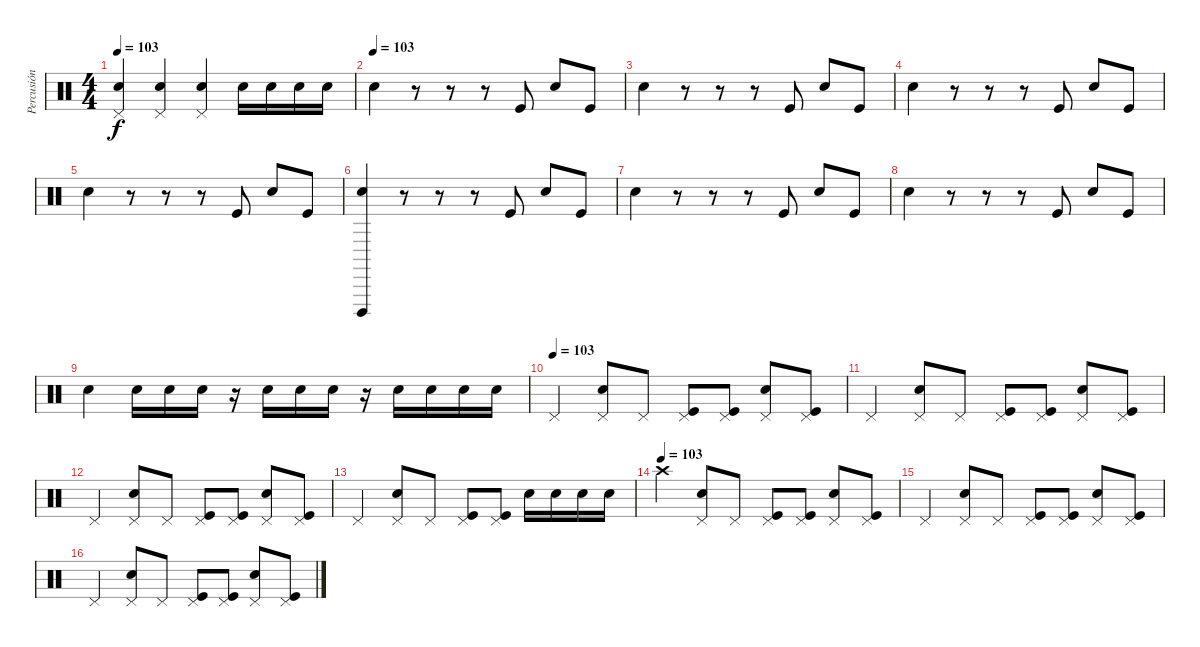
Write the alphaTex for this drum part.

\track ("Percusión" "Percusión") {instrument percussion}
\staff {score}
\articulation defaults
\ts (4 4)
\tempo 103
\clef neutral
\ks c
("Snare (hit) 2" "Pedal Hi-Hat (hit)").4{dy f} ("Snare (hit) 2" "Pedal Hi-Hat (hit)").4 ("Snare (hit) 2" "Pedal Hi-Hat (hit)").4 "Snare (hit) 2".16 "Snare (hit) 2".16 "Snare (hit) 2".16 "Snare (hit) 2".16 |
\tempo (103)
"Snare (hit) 2".4 r.8 r.8 r.8 "Kick (hit)".8 "Snare (hit) 2".8 "Kick (hit)".8 |
"Snare (hit) 2".4 r.8 r.8 r.8 "Kick (hit)".8 "Snare (hit) 2".8 "Kick (hit)".8 |
"Snare (hit) 2".4 r.8 r.8 r.8 "Kick (hit)".8 "Snare (hit) 2".8 "Kick (hit)".8 |
"Snare (hit) 2".4 r.8 r.8 r.8 "Kick (hit)".8 "Snare (hit) 2".8 "Kick (hit)".8 |
("Cuica (open)" "Snare (hit) 2").4 r.8 r.8 r.8 "Kick (hit)".8 "Snare (hit) 2".8 "Kick (hit)".8 |
"Snare (hit) 2".4 r.8 r.8 r.8 "Kick (hit)".8 "Snare (hit) 2".8 "Kick (hit)".8 |
"Snare (hit) 2".4 r.8 r.8 r.8 "Kick (hit)".8 "Snare (hit) 2".8 "Kick (hit)".8 |
"Snare (hit) 2".4 "Snare (hit) 2".16 "Snare (hit) 2".16 "Snare (hit) 2".16 r.16 "Snare (hit) 2".16 "Snare (hit) 2".16 "Snare (hit) 2".16 r.16 "Snare (hit) 2".16 "Snare (hit) 2".16 "Snare (hit) 2".16 "Snare (hit) 2".16 |
\tempo (103)
"Pedal Hi-Hat (hit)".4 ("Pedal Hi-Hat (hit)" "Snare (hit) 2").8 "Pedal Hi-Hat (hit)".8 ("Pedal Hi-Hat (hit)" "Kick (hit)").8 ("Pedal Hi-Hat (hit)" "Kick (hit)").8 ("Pedal Hi-Hat (hit)" "Snare (hit) 2").8 ("Pedal Hi-Hat (hit)" "Kick (hit)").8 |
"Pedal Hi-Hat (hit)".4 ("Pedal Hi-Hat (hit)" "Snare (hit) 2").8 "Pedal Hi-Hat (hit)".8 ("Pedal Hi-Hat (hit)" "Kick (hit)").8 ("Pedal Hi-Hat (hit)" "Kick (hit)").8 ("Pedal Hi-Hat (hit)" "Snare (hit) 2").8 ("Pedal Hi-Hat (hit)" "Kick (hit)").8 |
"Pedal Hi-Hat (hit)".4 ("Pedal Hi-Hat (hit)" "Snare (hit) 2").8 "Pedal Hi-Hat (hit)".8 ("Pedal Hi-Hat (hit)" "Kick (hit)").8 ("Pedal Hi-Hat (hit)" "Kick (hit)").8 ("Pedal Hi-Hat (hit)" "Snare (hit) 2").8 ("Pedal Hi-Hat (hit)" "Kick (hit)").8 |
"Pedal Hi-Hat (hit)".4 ("Pedal Hi-Hat (hit)" "Snare (hit) 2").8 "Pedal Hi-Hat (hit)".8 ("Pedal Hi-Hat (hit)" "Kick (hit)").8 ("Pedal Hi-Hat (hit)" "Kick (hit)").8 "Snare (hit) 2".16 "Snare (hit) 2".16 "Snare (hit) 2".16 "Snare (hit) 2".16 |
\tempo (103)
"Crash high (hit)".4 ("Pedal Hi-Hat (hit)" "Snare (hit) 2").8 "Pedal Hi-Hat (hit)".8 ("Pedal Hi-Hat (hit)" "Kick (hit)").8 ("Pedal Hi-Hat (hit)" "Kick (hit)").8 ("Pedal Hi-Hat (hit)" "Snare (hit) 2").8 ("Pedal Hi-Hat (hit)" "Kick (hit)").8 |
"Pedal Hi-Hat (hit)".4 ("Pedal Hi-Hat (hit)" "Snare (hit) 2").8 "Pedal Hi-Hat (hit)".8 ("Pedal Hi-Hat (hit)" "Kick (hit)").8 ("Pedal Hi-Hat (hit)" "Kick (hit)").8 ("Pedal Hi-Hat (hit)" "Snare (hit) 2").8 ("Pedal Hi-Hat (hit)" "Kick (hit)").8 |
"Pedal Hi-Hat (hit)".4 ("Pedal Hi-Hat (hit)" "Snare (hit) 2").8 "Pedal Hi-Hat (hit)".8 ("Pedal Hi-Hat (hit)" "Kick (hit)").8 ("Pedal Hi-Hat (hit)" "Kick (hit)").8 ("Pedal Hi-Hat (hit)" "Snare (hit) 2").8 ("Pedal Hi-Hat (hit)" "Kick (hit)").8
